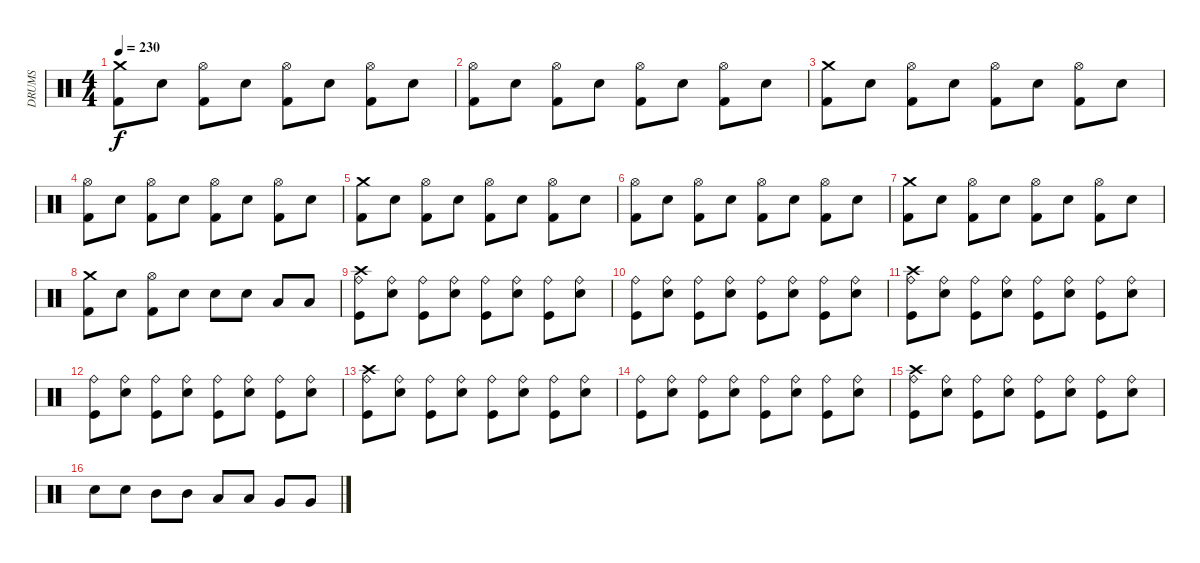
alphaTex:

\track ("DRUMS" "DRUMS") {instrument percussion}
\staff {score}
\articulation defaults
\ts (4 4)
\tempo 230
\clef neutral
\ks c
("Crash medium (hit)" "Kick (hit) 2").8{dy f} "Snare (hit) 2".8 ("Hi-Hat (open)" "Kick (hit) 2").8 "Snare (hit) 2".8 ("Hi-Hat (open)" "Kick (hit) 2").8 "Snare (hit) 2".8 ("Hi-Hat (open)" "Kick (hit) 2").8 "Snare (hit) 2".8 |
("Hi-Hat (open)" "Kick (hit) 2").8 "Snare (hit) 2".8 ("Hi-Hat (open)" "Kick (hit) 2").8 "Snare (hit) 2".8 ("Hi-Hat (open)" "Kick (hit) 2").8 "Snare (hit) 2".8 ("Hi-Hat (open)" "Kick (hit) 2").8 "Snare (hit) 2".8 |
("Crash medium (hit)" "Kick (hit) 2").8 "Snare (hit) 2".8 ("Hi-Hat (open)" "Kick (hit) 2").8 "Snare (hit) 2".8 ("Hi-Hat (open)" "Kick (hit) 2").8 "Snare (hit) 2".8 ("Hi-Hat (open)" "Kick (hit) 2").8 "Snare (hit) 2".8 |
("Hi-Hat (open)" "Kick (hit) 2").8 "Snare (hit) 2".8 ("Hi-Hat (open)" "Kick (hit) 2").8 "Snare (hit) 2".8 ("Hi-Hat (open)" "Kick (hit) 2").8 "Snare (hit) 2".8 ("Hi-Hat (open)" "Kick (hit) 2").8 "Snare (hit) 2".8 |
("Crash medium (hit)" "Kick (hit) 2").8 "Snare (hit) 2".8 ("Hi-Hat (open)" "Kick (hit) 2").8 "Snare (hit) 2".8 ("Hi-Hat (open)" "Kick (hit) 2").8 "Snare (hit) 2".8 ("Hi-Hat (open)" "Kick (hit) 2").8 "Snare (hit) 2".8 |
("Hi-Hat (open)" "Kick (hit) 2").8 "Snare (hit) 2".8 ("Hi-Hat (open)" "Kick (hit) 2").8 "Snare (hit) 2".8 ("Hi-Hat (open)" "Kick (hit) 2").8 "Snare (hit) 2".8 ("Hi-Hat (open)" "Kick (hit) 2").8 "Snare (hit) 2".8 |
("Crash medium (hit)" "Kick (hit) 2").8 "Snare (hit) 2".8 ("Hi-Hat (open)" "Kick (hit) 2").8 "Snare (hit) 2".8 ("Hi-Hat (open)" "Kick (hit) 2").8 "Snare (hit) 2".8 ("Hi-Hat (open)" "Kick (hit) 2").8 "Snare (hit) 2".8 |
("Crash medium (hit)" "Kick (hit) 2").8 "Snare (hit) 2".8 ("Hi-Hat (open)" "Kick (hit) 2").8 "Snare (hit) 2".8 "Snare (hit) 2".8 "Snare (hit) 2".8 "Low Tom (hit)".8 "Low Tom (hit)".8 |
("Crash high (hit)" "Ride (bell)" "Kick (hit)").8 ("Ride (bell)" "Snare (hit) 2").8 ("Ride (bell)" "Kick (hit)").8 ("Ride (bell)" "Snare (hit) 2").8 ("Ride (bell)" "Kick (hit)").8 ("Ride (bell)" "Snare (hit) 2").8 ("Ride (bell)" "Kick (hit)").8 ("Ride (bell)" "Snare (hit) 2").8 |
("Ride (bell)" "Kick (hit)").8 ("Ride (bell)" "Snare (hit) 2").8 ("Ride (bell)" "Kick (hit)").8 ("Ride (bell)" "Snare (hit) 2").8 ("Ride (bell)" "Kick (hit)").8 ("Ride (bell)" "Snare (hit) 2").8 ("Ride (bell)" "Kick (hit)").8 ("Ride (bell)" "Snare (hit) 2").8 |
("Crash high (hit)" "Ride (bell)" "Kick (hit)").8 ("Ride (bell)" "Snare (hit) 2").8 ("Ride (bell)" "Kick (hit)").8 ("Ride (bell)" "Snare (hit) 2").8 ("Ride (bell)" "Kick (hit)").8 ("Ride (bell)" "Snare (hit) 2").8 ("Ride (bell)" "Kick (hit)").8 ("Ride (bell)" "Snare (hit) 2").8 |
("Ride (bell)" "Kick (hit)").8 ("Ride (bell)" "Snare (hit) 2").8 ("Ride (bell)" "Kick (hit)").8 ("Ride (bell)" "Snare (hit) 2").8 ("Ride (bell)" "Kick (hit)").8 ("Ride (bell)" "Snare (hit) 2").8 ("Ride (bell)" "Kick (hit)").8 ("Ride (bell)" "Snare (hit) 2").8 |
("Crash high (hit)" "Ride (bell)" "Kick (hit)").8 ("Ride (bell)" "Snare (hit) 2").8 ("Ride (bell)" "Kick (hit)").8 ("Ride (bell)" "Snare (hit) 2").8 ("Ride (bell)" "Kick (hit)").8 ("Ride (bell)" "Snare (hit) 2").8 ("Ride (bell)" "Kick (hit)").8 ("Ride (bell)" "Snare (hit) 2").8 |
("Ride (bell)" "Kick (hit)").8 ("Ride (bell)" "Snare (hit) 2").8 ("Ride (bell)" "Kick (hit)").8 ("Ride (bell)" "Snare (hit) 2").8 ("Ride (bell)" "Kick (hit)").8 ("Ride (bell)" "Snare (hit) 2").8 ("Ride (bell)" "Kick (hit)").8 ("Ride (bell)" "Snare (hit) 2").8 |
("Crash high (hit)" "Ride (bell)" "Kick (hit)").8 ("Ride (bell)" "Snare (hit) 2").8 ("Ride (bell)" "Kick (hit)").8 ("Ride (bell)" "Snare (hit) 2").8 ("Ride (bell)" "Kick (hit)").8 ("Ride (bell)" "Snare (hit) 2").8 ("Ride (bell)" "Kick (hit)").8 ("Ride (bell)" "Snare (hit) 2").8 |
"Snare (hit) 2".8 "Snare (hit) 2".8 "Mid Tom (hit)".8 "Mid Tom (hit)".8 "Low Tom (hit)".8 "Low Tom (hit)".8 "Very Low Tom (hit)".8 "Very Low Tom (hit)".8
